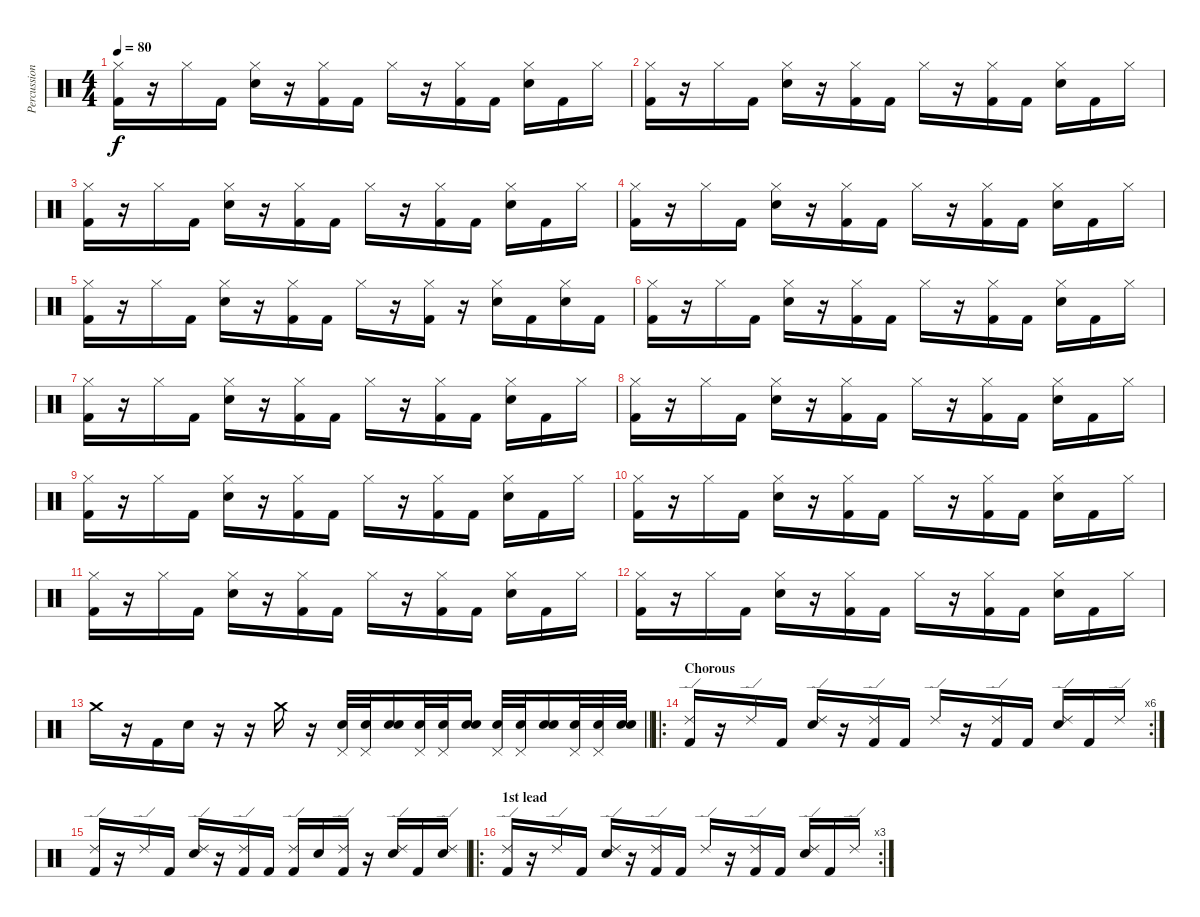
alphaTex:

\track ("Percussion" "Percussion") {instrument percussion}
\staff {score}
\articulation defaults
\ts (4 4)
\tempo 80
\clef neutral
\ks c
("Hi-Hat (closed)" "Kick (hit) 2").16{dy f} r.16 "Hi-Hat (closed)".16 "Kick (hit) 2".16 ("Hi-Hat (closed)" "Electric Snare (hit)").16 r.16 ("Hi-Hat (closed)" "Kick (hit) 2").16 "Kick (hit) 2".16 "Hi-Hat (closed)".16 r.16 ("Hi-Hat (closed)" "Kick (hit) 2").16 "Kick (hit) 2".16 ("Hi-Hat (closed)" "Electric Snare (hit)").16 "Kick (hit) 2".16 "Hi-Hat (closed)".16 |
("Hi-Hat (closed)" "Kick (hit) 2").16 r.16 "Hi-Hat (closed)".16 "Kick (hit) 2".16 ("Hi-Hat (closed)" "Electric Snare (hit)").16 r.16 ("Hi-Hat (closed)" "Kick (hit) 2").16 "Kick (hit) 2".16 "Hi-Hat (closed)".16 r.16 ("Hi-Hat (closed)" "Kick (hit) 2").16 "Kick (hit) 2".16 ("Hi-Hat (closed)" "Electric Snare (hit)").16 "Kick (hit) 2".16 "Hi-Hat (closed)".16 |
("Hi-Hat (closed)" "Kick (hit) 2").16 r.16 "Hi-Hat (closed)".16 "Kick (hit) 2".16 ("Hi-Hat (closed)" "Electric Snare (hit)").16 r.16 ("Hi-Hat (closed)" "Kick (hit) 2").16 "Kick (hit) 2".16 "Hi-Hat (closed)".16 r.16 ("Hi-Hat (closed)" "Kick (hit) 2").16 "Kick (hit) 2".16 ("Hi-Hat (closed)" "Electric Snare (hit)").16 "Kick (hit) 2".16 "Hi-Hat (closed)".16 |
("Hi-Hat (closed)" "Kick (hit) 2").16 r.16 "Hi-Hat (closed)".16 "Kick (hit) 2".16 ("Hi-Hat (closed)" "Electric Snare (hit)").16 r.16 ("Hi-Hat (closed)" "Kick (hit) 2").16 "Kick (hit) 2".16 "Hi-Hat (closed)".16 r.16 ("Hi-Hat (closed)" "Kick (hit) 2").16 "Kick (hit) 2".16 ("Hi-Hat (closed)" "Electric Snare (hit)").16 "Kick (hit) 2".16 "Hi-Hat (closed)".16 |
("Hi-Hat (closed)" "Kick (hit) 2").16 r.16 "Hi-Hat (closed)".16 "Kick (hit) 2".16 ("Hi-Hat (closed)" "Electric Snare (hit)").16 r.16 ("Hi-Hat (closed)" "Kick (hit) 2").16 "Kick (hit) 2".16 "Hi-Hat (closed)".16 r.16 ("Hi-Hat (closed)" "Kick (hit) 2").16 r.16 ("Hi-Hat (closed)" "Electric Snare (hit)").16 "Kick (hit) 2".16 ("Hi-Hat (closed)" "Electric Snare (hit)").16 "Kick (hit) 2".16 |
("Hi-Hat (closed)" "Kick (hit) 2").16 r.16 "Hi-Hat (closed)".16 "Kick (hit) 2".16 ("Hi-Hat (closed)" "Electric Snare (hit)").16 r.16 ("Hi-Hat (closed)" "Kick (hit) 2").16 "Kick (hit) 2".16 "Hi-Hat (closed)".16 r.16 ("Hi-Hat (closed)" "Kick (hit) 2").16 "Kick (hit) 2".16 ("Hi-Hat (closed)" "Electric Snare (hit)").16 "Kick (hit) 2".16 "Hi-Hat (closed)".16 |
("Hi-Hat (closed)" "Kick (hit) 2").16 r.16 "Hi-Hat (closed)".16 "Kick (hit) 2".16 ("Hi-Hat (closed)" "Electric Snare (hit)").16 r.16 ("Hi-Hat (closed)" "Kick (hit) 2").16 "Kick (hit) 2".16 "Hi-Hat (closed)".16 r.16 ("Hi-Hat (closed)" "Kick (hit) 2").16 "Kick (hit) 2".16 ("Hi-Hat (closed)" "Electric Snare (hit)").16 "Kick (hit) 2".16 "Hi-Hat (closed)".16 |
("Hi-Hat (closed)" "Kick (hit) 2").16 r.16 "Hi-Hat (closed)".16 "Kick (hit) 2".16 ("Hi-Hat (closed)" "Electric Snare (hit)").16 r.16 ("Hi-Hat (closed)" "Kick (hit) 2").16 "Kick (hit) 2".16 "Hi-Hat (closed)".16 r.16 ("Hi-Hat (closed)" "Kick (hit) 2").16 "Kick (hit) 2".16 ("Hi-Hat (closed)" "Electric Snare (hit)").16 "Kick (hit) 2".16 "Hi-Hat (closed)".16 |
("Hi-Hat (closed)" "Kick (hit) 2").16 r.16 "Hi-Hat (closed)".16 "Kick (hit) 2".16 ("Hi-Hat (closed)" "Electric Snare (hit)").16 r.16 ("Hi-Hat (closed)" "Kick (hit) 2").16 "Kick (hit) 2".16 "Hi-Hat (closed)".16 r.16 ("Hi-Hat (closed)" "Kick (hit) 2").16 "Kick (hit) 2".16 ("Hi-Hat (closed)" "Electric Snare (hit)").16 "Kick (hit) 2".16 "Hi-Hat (closed)".16 |
("Hi-Hat (closed)" "Kick (hit) 2").16 r.16 "Hi-Hat (closed)".16 "Kick (hit) 2".16 ("Hi-Hat (closed)" "Electric Snare (hit)").16 r.16 ("Hi-Hat (closed)" "Kick (hit) 2").16 "Kick (hit) 2".16 "Hi-Hat (closed)".16 r.16 ("Hi-Hat (closed)" "Kick (hit) 2").16 "Kick (hit) 2".16 ("Hi-Hat (closed)" "Electric Snare (hit)").16 "Kick (hit) 2".16 "Hi-Hat (closed)".16 |
("Hi-Hat (closed)" "Kick (hit) 2").16 r.16 "Hi-Hat (closed)".16 "Kick (hit) 2".16 ("Hi-Hat (closed)" "Electric Snare (hit)").16 r.16 ("Hi-Hat (closed)" "Kick (hit) 2").16 "Kick (hit) 2".16 "Hi-Hat (closed)".16 r.16 ("Hi-Hat (closed)" "Kick (hit) 2").16 "Kick (hit) 2".16 ("Hi-Hat (closed)" "Electric Snare (hit)").16 "Kick (hit) 2".16 "Hi-Hat (closed)".16 |
("Hi-Hat (closed)" "Kick (hit) 2").16 r.16 "Hi-Hat (closed)".16 "Kick (hit) 2".16 ("Hi-Hat (closed)" "Electric Snare (hit)").16 r.16 ("Hi-Hat (closed)" "Kick (hit) 2").16 "Kick (hit) 2".16 "Hi-Hat (closed)".16 r.16 ("Hi-Hat (closed)" "Kick (hit) 2").16 "Kick (hit) 2".16 ("Hi-Hat (closed)" "Electric Snare (hit)").16 "Kick (hit) 2".16 "Hi-Hat (closed)".16 |
\barLineRight lightlight "Crash medium (hit)".16
r.16 "Kick (hit) 2".16 "Electric Snare (hit)".16 r.16 r.16 "Crash medium (hit)".16 r.16 ("Pedal Hi-Hat (hit)" "Electric Snare (hit)").32 ("Pedal Hi-Hat (hit)" "Electric Snare (hit)").32 ("Electric Snare (hit)" "Electric Snare (hit)").16 ("Pedal Hi-Hat (hit)" "Electric Snare (hit)").32 ("Pedal Hi-Hat (hit)" "Electric Snare (hit)").32 ("Electric Snare (hit)" "Electric Snare (hit)").16 ("Pedal Hi-Hat (hit)" "Electric Snare (hit)").32 ("Pedal Hi-Hat (hit)" "Electric Snare (hit)").32 ("Electric Snare (hit)" "Electric Snare (hit)").16 ("Pedal Hi-Hat (hit)" "Electric Snare (hit)").32 ("Pedal Hi-Hat (hit)" "Electric Snare (hit)").32 ("Electric Snare (hit)" "Electric Snare (hit)").32 |
\ro
\rc 6
\section ("" "Chorous")
("Ride (edge) 2" "Kick (hit) 2").16 r.16 "Ride (edge) 2".16 "Kick (hit) 2".16 ("Ride (edge) 2" "Electric Snare (hit)").16 r.16 ("Ride (edge) 2" "Kick (hit) 2").16 "Kick (hit) 2".16 "Ride (edge) 2".16 r.16 ("Ride (edge) 2" "Kick (hit) 2").16 "Kick (hit) 2".16 ("Ride (edge) 2" "Electric Snare (hit)").16 "Kick (hit) 2".16 "Ride (edge) 2".16 |
("Ride (edge) 2" "Kick (hit) 2").16 r.16 "Ride (edge) 2".16 "Kick (hit) 2".16 ("Ride (edge) 2" "Electric Snare (hit)").16 r.16 ("Ride (edge) 2" "Kick (hit) 2").16 "Kick (hit) 2".16 ("Ride (edge) 2" "Kick (hit) 2").16 "Electric Snare (hit)".16 ("Ride (edge) 2" "Kick (hit) 2").16 r.16 ("Ride (edge) 2" "Electric Snare (hit)").16 "Kick (hit) 2".16 ("Ride (edge) 2" "Electric Snare (hit)").16 |
\ro
\rc 3
\section ("" "1st lead")
("Ride (edge) 2" "Kick (hit) 2").16 r.16 "Ride (edge) 2".16 "Kick (hit) 2".16 ("Ride (edge) 2" "Electric Snare (hit)").16 r.16 ("Ride (edge) 2" "Kick (hit) 2").16 "Kick (hit) 2".16 "Ride (edge) 2".16 r.16 ("Ride (edge) 2" "Kick (hit) 2").16 "Kick (hit) 2".16 ("Ride (edge) 2" "Electric Snare (hit)").16 "Kick (hit) 2".16 "Ride (edge) 2".16
